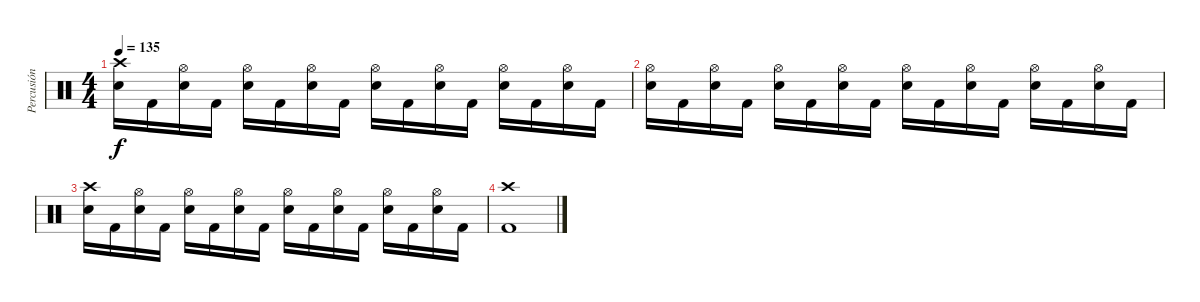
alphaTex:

\track ("Percusión" "Percusión") {instrument percussion}
\staff {score}
\articulation defaults
\ts (4 4)
\tempo 135
\clef neutral
\ks c
("Crash high (hit)" "Snare (hit) 2").16{dy f} "Kick (hit) 2".16 ("Hi-Hat (open)" "Snare (hit) 2").16 "Kick (hit) 2".16 ("Hi-Hat (open)" "Snare (hit) 2").16 "Kick (hit) 2".16 ("Hi-Hat (open)" "Snare (hit) 2").16 "Kick (hit) 2".16 ("Hi-Hat (open)" "Snare (hit) 2").16 "Kick (hit) 2".16 ("Hi-Hat (open)" "Snare (hit) 2").16 "Kick (hit) 2".16 ("Hi-Hat (open)" "Snare (hit) 2").16 "Kick (hit) 2".16 ("Hi-Hat (open)" "Snare (hit) 2").16 "Kick (hit) 2".16 |
("Hi-Hat (open)" "Snare (hit) 2").16 "Kick (hit) 2".16 ("Hi-Hat (open)" "Snare (hit) 2").16 "Kick (hit) 2".16 ("Hi-Hat (open)" "Snare (hit) 2").16 "Kick (hit) 2".16 ("Hi-Hat (open)" "Snare (hit) 2").16 "Kick (hit) 2".16 ("Hi-Hat (open)" "Snare (hit) 2").16 "Kick (hit) 2".16 ("Hi-Hat (open)" "Snare (hit) 2").16 "Kick (hit) 2".16 ("Hi-Hat (open)" "Snare (hit) 2").16 "Kick (hit) 2".16 ("Hi-Hat (open)" "Snare (hit) 2").16 "Kick (hit) 2".16 |
("Crash high (hit)" "Snare (hit) 2").16 "Kick (hit) 2".16 ("Hi-Hat (open)" "Snare (hit) 2").16 "Kick (hit) 2".16 ("Hi-Hat (open)" "Snare (hit) 2").16 "Kick (hit) 2".16 ("Hi-Hat (open)" "Snare (hit) 2").16 "Kick (hit) 2".16 ("Hi-Hat (open)" "Snare (hit) 2").16 "Kick (hit) 2".16 ("Hi-Hat (open)" "Snare (hit) 2").16 "Kick (hit) 2".16 ("Hi-Hat (open)" "Snare (hit) 2").16 "Kick (hit) 2".16 ("Hi-Hat (open)" "Snare (hit) 2").16 "Kick (hit) 2".16 |
("Crash high (hit)" "Kick (hit) 2").1
